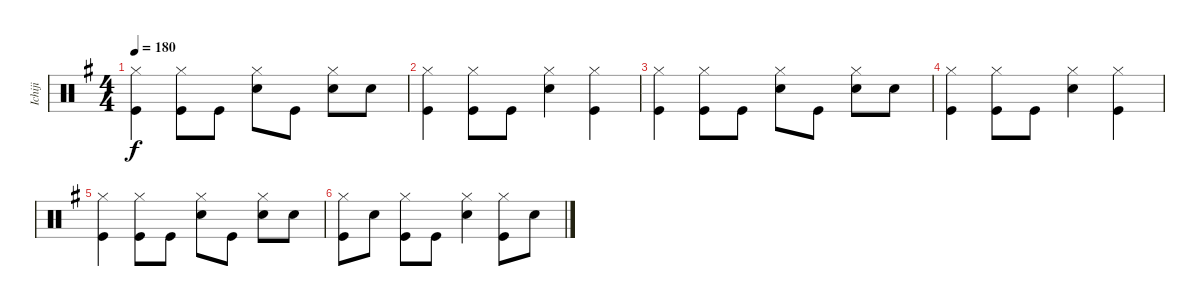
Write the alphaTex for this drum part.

\track ("Ichiji" "Ichiji") {instrument percussion}
\staff {score}
\articulation defaults
\ts (4 4)
\tempo 180
\clef neutral
\ks g
("Hi-Hat (closed)" "Kick (hit)").4{dy f} ("Hi-Hat (closed)" "Kick (hit)").8 "Kick (hit)".8 ("Hi-Hat (closed)" "Snare (hit) 2").8 "Kick (hit)".8 ("Hi-Hat (closed)" "Snare (hit) 2").8 "Snare (hit) 2".8 |
("Hi-Hat (closed)" "Kick (hit)").4 ("Hi-Hat (closed)" "Kick (hit)").8 "Kick (hit)".8 ("Hi-Hat (closed)" "Snare (hit) 2").4 ("Hi-Hat (closed)" "Kick (hit)").4 |
("Hi-Hat (closed)" "Kick (hit)").4 ("Hi-Hat (closed)" "Kick (hit)").8 "Kick (hit)".8 ("Hi-Hat (closed)" "Snare (hit) 2").8 "Kick (hit)".8 ("Hi-Hat (closed)" "Snare (hit) 2").8 "Snare (hit) 2".8 |
("Hi-Hat (closed)" "Kick (hit)").4 ("Hi-Hat (closed)" "Kick (hit)").8 "Kick (hit)".8 ("Hi-Hat (closed)" "Snare (hit) 2").4 ("Hi-Hat (closed)" "Kick (hit)").4 |
("Hi-Hat (closed)" "Kick (hit)").4 ("Hi-Hat (closed)" "Kick (hit)").8 "Kick (hit)".8 ("Hi-Hat (closed)" "Snare (hit) 2").8 "Kick (hit)".8 ("Hi-Hat (closed)" "Snare (hit) 2").8 "Snare (hit) 2".8 |
("Hi-Hat (closed)" "Kick (hit)").8 "Snare (hit) 2".8 ("Hi-Hat (closed)" "Kick (hit)").8 "Kick (hit)".8 ("Hi-Hat (closed)" "Snare (hit) 2").4 ("Hi-Hat (closed)" "Kick (hit)").8 "Snare (hit) 2".8
